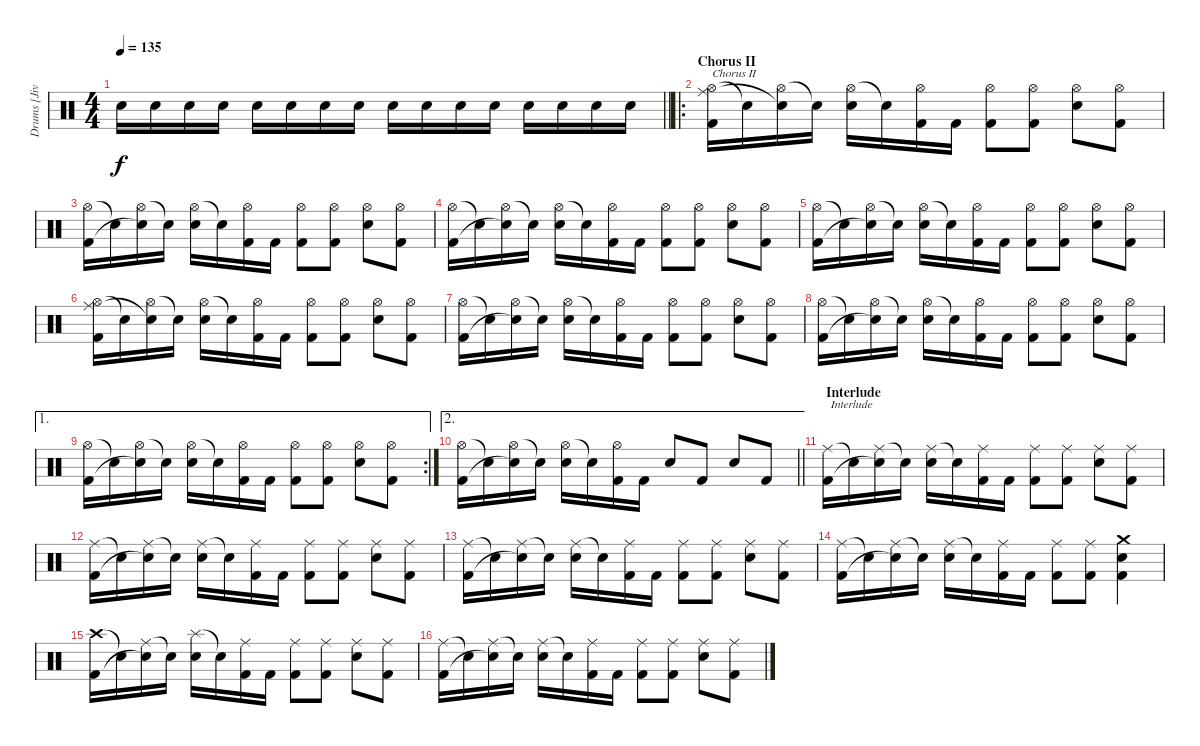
\track ("Drums [Jivarp]" "Drums [Jiv") {instrument percussion}
\staff {score}
\articulation defaults
\ts (4 4)
\tempo 135
\clef neutral
\barLineRight lightlight
\ks c "Electric Snare (hit)".16{dy f} "Electric Snare (hit)".16 "Electric Snare (hit)".16 "Electric Snare (hit)".16 "Electric Snare (hit)".16 "Electric Snare (hit)".16 "Electric Snare (hit)".16 "Electric Snare (hit)".16 "Electric Snare (hit)".16 "Electric Snare (hit)".16 "Electric Snare (hit)".16 "Electric Snare (hit)".16 "Electric Snare (hit)".16 "Electric Snare (hit)".16 "Electric Snare (hit)".16 "Electric Snare (hit)".16
|
\ro
\section ("" "Chorus II")
("Hi-Hat (open)" "Ride (middle)" "Kick (hit) 2").16{txt "Chorus II"} "Snare (hit)"{t}.16 ("Hi-Hat (open)" "Snare (hit)"{t}).16 "Snare (hit)"{t}.16 ("Hi-Hat (open)" "Electric Snare (hit)").16 "Snare (hit)"{t}.16 ("Hi-Hat (open)" "Kick (hit) 2").16 "Kick (hit) 2".16 ("Hi-Hat (open)" "Kick (hit) 2").8 ("Hi-Hat (open)" "Kick (hit) 2").8 ("Hi-Hat (open)" "Electric Snare (hit)").8 ("Hi-Hat (open)" "Kick (hit) 2").8 |
("Hi-Hat (open)" "Kick (hit) 2").16 "Snare (hit)"{t}.16 ("Hi-Hat (open)" "Snare (hit)"{t}).16 "Snare (hit)"{t}.16 ("Hi-Hat (open)" "Electric Snare (hit)").16 "Snare (hit)"{t}.16 ("Hi-Hat (open)" "Kick (hit) 2").16 "Kick (hit) 2".16 ("Hi-Hat (open)" "Kick (hit) 2").8 ("Hi-Hat (open)" "Kick (hit) 2").8 ("Hi-Hat (open)" "Electric Snare (hit)").8 ("Hi-Hat (open)" "Kick (hit) 2").8 |
("Hi-Hat (open)" "Kick (hit) 2").16 "Snare (hit)"{t}.16 ("Hi-Hat (open)" "Snare (hit)"{t}).16 "Snare (hit)"{t}.16 ("Hi-Hat (open)" "Electric Snare (hit)").16 "Snare (hit)"{t}.16 ("Hi-Hat (open)" "Kick (hit) 2").16 "Kick (hit) 2".16 ("Hi-Hat (open)" "Kick (hit) 2").8 ("Hi-Hat (open)" "Kick (hit) 2").8 ("Hi-Hat (open)" "Electric Snare (hit)").8 ("Hi-Hat (open)" "Kick (hit) 2").8 |
("Hi-Hat (open)" "Kick (hit) 2").16 "Snare (hit)"{t}.16 ("Hi-Hat (open)" "Snare (hit)"{t}).16 "Snare (hit)"{t}.16 ("Hi-Hat (open)" "Electric Snare (hit)").16 "Snare (hit)"{t}.16 ("Hi-Hat (open)" "Kick (hit) 2").16 "Kick (hit) 2".16 ("Hi-Hat (open)" "Kick (hit) 2").8 ("Hi-Hat (open)" "Kick (hit) 2").8 ("Hi-Hat (open)" "Electric Snare (hit)").8 ("Hi-Hat (open)" "Kick (hit) 2").8 |
("Hi-Hat (open)" "Ride (middle)" "Kick (hit) 2").16 "Snare (hit)"{t}.16 ("Hi-Hat (open)" "Snare (hit)"{t}).16 "Snare (hit)"{t}.16 ("Hi-Hat (open)" "Electric Snare (hit)").16 "Snare (hit)"{t}.16 ("Hi-Hat (open)" "Kick (hit) 2").16 "Kick (hit) 2".16 ("Hi-Hat (open)" "Kick (hit) 2").8 ("Hi-Hat (open)" "Kick (hit) 2").8 ("Hi-Hat (open)" "Electric Snare (hit)").8 ("Hi-Hat (open)" "Kick (hit) 2").8 |
("Hi-Hat (open)" "Kick (hit) 2").16 "Snare (hit)"{t}.16 ("Hi-Hat (open)" "Snare (hit)"{t}).16 "Snare (hit)"{t}.16 ("Hi-Hat (open)" "Electric Snare (hit)").16 "Snare (hit)"{t}.16 ("Hi-Hat (open)" "Kick (hit) 2").16 "Kick (hit) 2".16 ("Hi-Hat (open)" "Kick (hit) 2").8 ("Hi-Hat (open)" "Kick (hit) 2").8 ("Hi-Hat (open)" "Electric Snare (hit)").8 ("Hi-Hat (open)" "Kick (hit) 2").8 |
("Hi-Hat (open)" "Kick (hit) 2").16 "Snare (hit)"{t}.16 ("Hi-Hat (open)" "Snare (hit)"{t}).16 "Snare (hit)"{t}.16 ("Hi-Hat (open)" "Electric Snare (hit)").16 "Snare (hit)"{t}.16 ("Hi-Hat (open)" "Kick (hit) 2").16 "Kick (hit) 2".16 ("Hi-Hat (open)" "Kick (hit) 2").8 ("Hi-Hat (open)" "Kick (hit) 2").8 ("Hi-Hat (open)" "Electric Snare (hit)").8 ("Hi-Hat (open)" "Kick (hit) 2").8 |
\ae 1
\rc 2
("Hi-Hat (open)" "Kick (hit) 2").16 "Snare (hit)"{t}.16 ("Hi-Hat (open)" "Snare (hit)"{t}).16 "Snare (hit)"{t}.16 ("Hi-Hat (open)" "Electric Snare (hit)").16 "Snare (hit)"{t}.16 ("Hi-Hat (open)" "Kick (hit) 2").16 "Kick (hit) 2".16 ("Hi-Hat (open)" "Kick (hit) 2").8 ("Hi-Hat (open)" "Kick (hit) 2").8 ("Hi-Hat (open)" "Electric Snare (hit)").8 ("Hi-Hat (open)" "Kick (hit) 2").8 |
\ae 2
\barLineRight lightlight
("Hi-Hat (open)" "Kick (hit) 2").16 "Snare (hit)"{t}.16 ("Hi-Hat (open)" "Snare (hit)"{t}).16 "Snare (hit)"{t}.16 ("Hi-Hat (open)" "Electric Snare (hit)").16 "Snare (hit)"{t}.16 ("Hi-Hat (open)" "Kick (hit) 2").16 "Kick (hit) 2".16 "Electric Snare (hit)".8 "Kick (hit) 2".8 "Electric Snare (hit)".8 "Kick (hit) 2".8 |
\section ("" " Interlude")
("Ride (middle)" "Kick (hit) 2").16{txt " Interlude"} "Snare (hit)"{t}.16 ("Ride (middle)" "Snare (hit)"{t}).16 "Snare (hit)"{t}.16 ("Ride (middle)" "Electric Snare (hit)").16 "Snare (hit)"{t}.16 ("Ride (middle)" "Kick (hit) 2").16 "Kick (hit) 2".16 ("Ride (middle)" "Kick (hit) 2").8 ("Ride (middle)" "Kick (hit) 2").8 ("Ride (middle)" "Electric Snare (hit)").8 ("Ride (middle)" "Kick (hit) 2").8 |
("Ride (middle)" "Kick (hit) 2").16 "Snare (hit)"{t}.16 ("Ride (middle)" "Snare (hit)"{t}).16 "Snare (hit)"{t}.16 ("Ride (middle)" "Electric Snare (hit)").16 "Snare (hit)"{t}.16 ("Ride (middle)" "Kick (hit) 2").16 "Kick (hit) 2".16 ("Ride (middle)" "Kick (hit) 2").8 ("Ride (middle)" "Kick (hit) 2").8 ("Ride (middle)" "Electric Snare (hit)").8 ("Ride (middle)" "Kick (hit) 2").8 |
("Ride (middle)" "Kick (hit) 2").16 "Snare (hit)"{t}.16 ("Ride (middle)" "Snare (hit)"{t}).16 "Snare (hit)"{t}.16 ("Ride (middle)" "Electric Snare (hit)").16 "Snare (hit)"{t}.16 ("Ride (middle)" "Kick (hit) 2").16 "Kick (hit) 2".16 ("Ride (middle)" "Kick (hit) 2").8 ("Ride (middle)" "Kick (hit) 2").8 ("Ride (middle)" "Electric Snare (hit)").8 ("Ride (middle)" "Kick (hit) 2").8 |
("Ride (middle)" "Kick (hit) 2").16 "Snare (hit)"{t}.16 ("Ride (middle)" "Snare (hit)"{t}).16 "Snare (hit)"{t}.16 ("Ride (middle)" "Electric Snare (hit)").16 "Snare (hit)"{t}.16 ("Ride (middle)" "Kick (hit) 2").16 "Kick (hit) 2".16 ("Ride (middle)" "Kick (hit) 2").8 ("Ride (middle)" "Kick (hit) 2").8 ("Crash medium (hit)" "Electric Snare (hit)" "Kick (hit) 2").4 |
("Crash high (hit)" "Kick (hit) 2").16 "Snare (hit)"{t}.16 ("Ride (middle)" "Snare (hit)"{t}).16 "Snare (hit)"{t}.16 ("Splash (hit)" "Electric Snare (hit)").16 "Snare (hit)"{t}.16 ("Ride (middle)" "Kick (hit) 2").16 "Kick (hit) 2".16 ("Ride (middle)" "Kick (hit) 2").8 ("Ride (middle)" "Kick (hit) 2").8 ("Ride (middle)" "Electric Snare (hit)").8 ("Ride (middle)" "Kick (hit) 2").8 |
("Ride (middle)" "Kick (hit) 2").16 "Snare (hit)"{t}.16 ("Ride (middle)" "Snare (hit)"{t}).16 "Snare (hit)"{t}.16 ("Ride (middle)" "Electric Snare (hit)").16 "Snare (hit)"{t}.16 ("Ride (middle)" "Kick (hit) 2").16 "Kick (hit) 2".16 ("Ride (middle)" "Kick (hit) 2").8 ("Ride (middle)" "Kick (hit) 2").8 ("Ride (middle)" "Electric Snare (hit)").8 ("Ride (middle)" "Kick (hit) 2").8
